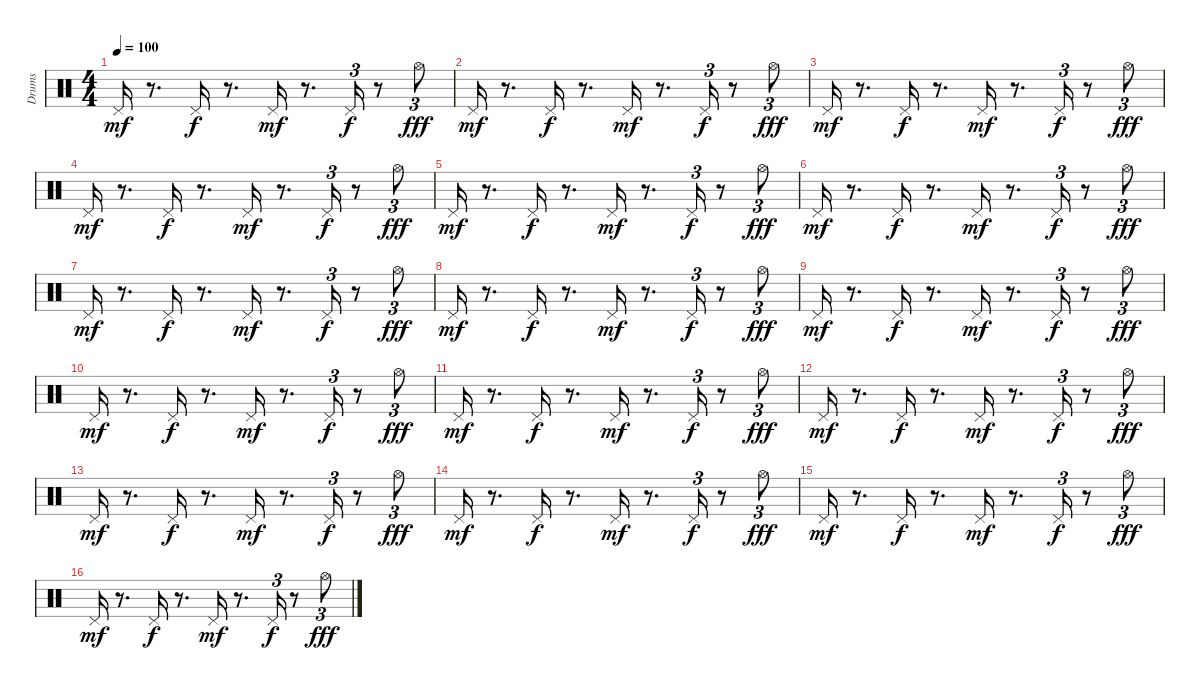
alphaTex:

\track ("Drums" "Drums") {instrument percussion}
\staff {score}
\articulation defaults
\ts (4 4)
\tempo 100
\clef neutral
\ks c "Pedal Hi-Hat (hit)".16{dy mf}
r.8{d} "Pedal Hi-Hat (hit)".16{dy f} r.8{d} "Pedal Hi-Hat (hit)".16{dy mf} r.8{d} "Pedal Hi-Hat (hit)".16{tu (3 2) dy f} r.8 "Hi-Hat (open)".8{tu (3 2) dy fff} |
"Pedal Hi-Hat (hit)".16{dy mf} r.8{d} "Pedal Hi-Hat (hit)".16{dy f} r.8{d} "Pedal Hi-Hat (hit)".16{dy mf} r.8{d} "Pedal Hi-Hat (hit)".16{tu (3 2) dy f} r.8 "Hi-Hat (open)".8{tu (3 2) dy fff} |
"Pedal Hi-Hat (hit)".16{dy mf} r.8{d} "Pedal Hi-Hat (hit)".16{dy f} r.8{d} "Pedal Hi-Hat (hit)".16{dy mf} r.8{d} "Pedal Hi-Hat (hit)".16{tu (3 2) dy f} r.8 "Hi-Hat (open)".8{tu (3 2) dy fff} |
"Pedal Hi-Hat (hit)".16{dy mf} r.8{d} "Pedal Hi-Hat (hit)".16{dy f} r.8{d} "Pedal Hi-Hat (hit)".16{dy mf} r.8{d} "Pedal Hi-Hat (hit)".16{tu (3 2) dy f} r.8 "Hi-Hat (open)".8{tu (3 2) dy fff} |
"Pedal Hi-Hat (hit)".16{dy mf} r.8{d} "Pedal Hi-Hat (hit)".16{dy f} r.8{d} "Pedal Hi-Hat (hit)".16{dy mf} r.8{d} "Pedal Hi-Hat (hit)".16{tu (3 2) dy f} r.8 "Hi-Hat (open)".8{tu (3 2) dy fff} |
"Pedal Hi-Hat (hit)".16{dy mf} r.8{d} "Pedal Hi-Hat (hit)".16{dy f} r.8{d} "Pedal Hi-Hat (hit)".16{dy mf} r.8{d} "Pedal Hi-Hat (hit)".16{tu (3 2) dy f} r.8 "Hi-Hat (open)".8{tu (3 2) dy fff} |
"Pedal Hi-Hat (hit)".16{dy mf} r.8{d} "Pedal Hi-Hat (hit)".16{dy f} r.8{d} "Pedal Hi-Hat (hit)".16{dy mf} r.8{d} "Pedal Hi-Hat (hit)".16{tu (3 2) dy f} r.8 "Hi-Hat (open)".8{tu (3 2) dy fff} |
"Pedal Hi-Hat (hit)".16{dy mf} r.8{d} "Pedal Hi-Hat (hit)".16{dy f} r.8{d} "Pedal Hi-Hat (hit)".16{dy mf} r.8{d} "Pedal Hi-Hat (hit)".16{tu (3 2) dy f} r.8 "Hi-Hat (open)".8{tu (3 2) dy fff} |
"Pedal Hi-Hat (hit)".16{dy mf} r.8{d} "Pedal Hi-Hat (hit)".16{dy f} r.8{d} "Pedal Hi-Hat (hit)".16{dy mf} r.8{d} "Pedal Hi-Hat (hit)".16{tu (3 2) dy f} r.8 "Hi-Hat (open)".8{tu (3 2) dy fff} |
"Pedal Hi-Hat (hit)".16{dy mf} r.8{d} "Pedal Hi-Hat (hit)".16{dy f} r.8{d} "Pedal Hi-Hat (hit)".16{dy mf} r.8{d} "Pedal Hi-Hat (hit)".16{tu (3 2) dy f} r.8 "Hi-Hat (open)".8{tu (3 2) dy fff} |
"Pedal Hi-Hat (hit)".16{dy mf} r.8{d} "Pedal Hi-Hat (hit)".16{dy f} r.8{d} "Pedal Hi-Hat (hit)".16{dy mf} r.8{d} "Pedal Hi-Hat (hit)".16{tu (3 2) dy f} r.8 "Hi-Hat (open)".8{tu (3 2) dy fff} |
"Pedal Hi-Hat (hit)".16{dy mf} r.8{d} "Pedal Hi-Hat (hit)".16{dy f} r.8{d} "Pedal Hi-Hat (hit)".16{dy mf} r.8{d} "Pedal Hi-Hat (hit)".16{tu (3 2) dy f} r.8 "Hi-Hat (open)".8{tu (3 2) dy fff} |
"Pedal Hi-Hat (hit)".16{dy mf} r.8{d} "Pedal Hi-Hat (hit)".16{dy f} r.8{d} "Pedal Hi-Hat (hit)".16{dy mf} r.8{d} "Pedal Hi-Hat (hit)".16{tu (3 2) dy f} r.8 "Hi-Hat (open)".8{tu (3 2) dy fff} |
"Pedal Hi-Hat (hit)".16{dy mf} r.8{d} "Pedal Hi-Hat (hit)".16{dy f} r.8{d} "Pedal Hi-Hat (hit)".16{dy mf} r.8{d} "Pedal Hi-Hat (hit)".16{tu (3 2) dy f} r.8 "Hi-Hat (open)".8{tu (3 2) dy fff} |
"Pedal Hi-Hat (hit)".16{dy mf} r.8{d} "Pedal Hi-Hat (hit)".16{dy f} r.8{d} "Pedal Hi-Hat (hit)".16{dy mf} r.8{d} "Pedal Hi-Hat (hit)".16{tu (3 2) dy f} r.8 "Hi-Hat (open)".8{tu (3 2) dy fff} |
"Pedal Hi-Hat (hit)".16{dy mf} r.8{d} "Pedal Hi-Hat (hit)".16{dy f} r.8{d} "Pedal Hi-Hat (hit)".16{dy mf} r.8{d} "Pedal Hi-Hat (hit)".16{tu (3 2) dy f} r.8 "Hi-Hat (open)".8{tu (3 2) dy fff}
